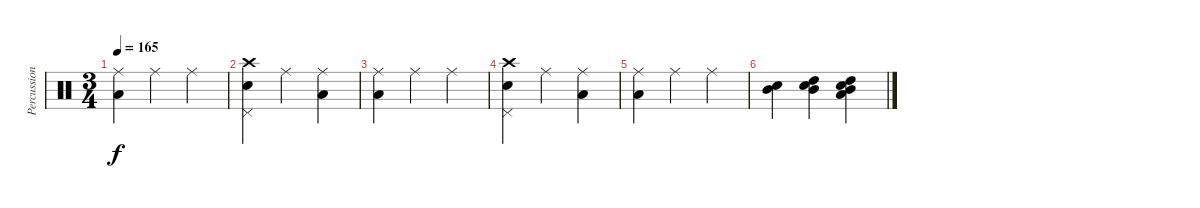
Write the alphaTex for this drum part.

\track ("Percussions" "Percussion") {instrument percussion}
\staff {score}
\articulation defaults
\ts (3 4)
\tempo 165
\clef neutral
\ks c
("Ride (middle)" "Low Floor Tom (hit)").4{dy f} "Ride (middle)".4 "Ride (middle)".4 |
("Crash high (hit)" "Snare (hit) 2" "Pedal Hi-Hat (hit)").4 "Ride (middle)".4 ("Ride (middle)" "Low Floor Tom (hit)").4 |
("Ride (middle)" "Low Floor Tom (hit)").4 "Ride (middle)".4 "Ride (middle)".4 |
("Crash high (hit)" "Snare (hit) 2" "Pedal Hi-Hat (hit)").4{volume 0} "Ride (middle)".4 ("Ride (middle)" "Low Floor Tom (hit)").4 |
("Ride (middle)" "Low Floor Tom (hit)").4 "Ride (middle)".4 "Ride (middle)".4 |
("Mid Tom (hit)" "Snare (hit) 2").4 ("High Tom (hit)" "Mid Tom (hit)" "Snare (hit) 2").4 ("High Tom (hit)" "Mid Tom (hit)" "Snare (hit) 2" "Low Floor Tom (hit)").4
